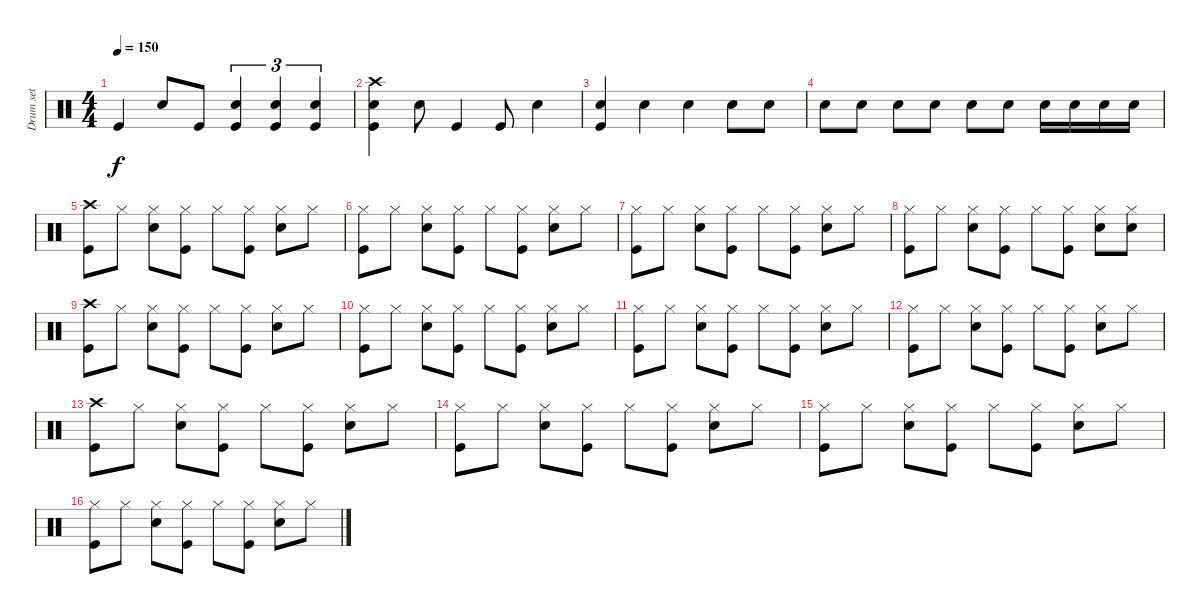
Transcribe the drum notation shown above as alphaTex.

\track ("Drum set" "Drum set") {instrument percussion}
\staff {score}
\articulation defaults
\ts (4 4)
\tempo 150
\clef neutral
\ks c "Kick (hit)".4{dy f} "Snare (hit) 2".8 "Kick (hit)".8
("Snare (hit) 2" "Kick (hit)").4{tu (3 2)} ("Snare (hit) 2" "Kick (hit)").4{tu (3 2)} ("Snare (hit) 2" "Kick (hit)").4{tu (3 2)} |
("Crash high (hit)" "Snare (hit) 2" "Kick (hit)").4 "Snare (hit) 2".8 "Kick (hit)".4 "Kick (hit)".8 "Snare (hit) 2".4 |
("Snare (hit) 2" "Kick (hit)").4 "Snare (hit) 2".4 "Snare (hit) 2".4 "Snare (hit) 2".8 "Snare (hit) 2".8 |
"Snare (hit) 2".8 "Snare (hit) 2".8 "Snare (hit) 2".8 "Snare (hit) 2".8 "Snare (hit) 2".8 "Snare (hit) 2".8 "Snare (hit) 2".16 "Snare (hit) 2".16 "Snare (hit) 2".16 "Snare (hit) 2".16 |
("Crash high (hit)" "Kick (hit)").8 "Hi-Hat (closed)".8 ("Hi-Hat (closed)" "Snare (hit) 2").8 ("Hi-Hat (closed)" "Kick (hit)").8 "Hi-Hat (closed)".8 ("Hi-Hat (closed)" "Kick (hit)").8 ("Hi-Hat (closed)" "Snare (hit) 2").8 "Hi-Hat (closed)".8 |
("Hi-Hat (closed)" "Kick (hit)").8 "Hi-Hat (closed)".8 ("Hi-Hat (closed)" "Snare (hit) 2").8 ("Hi-Hat (closed)" "Kick (hit)").8 "Hi-Hat (closed)".8 ("Hi-Hat (closed)" "Kick (hit)").8 ("Hi-Hat (closed)" "Snare (hit) 2").8 "Hi-Hat (closed)".8 |
("Hi-Hat (closed)" "Kick (hit)").8 "Hi-Hat (closed)".8 ("Hi-Hat (closed)" "Snare (hit) 2").8 ("Hi-Hat (closed)" "Kick (hit)").8 "Hi-Hat (closed)".8 ("Hi-Hat (closed)" "Kick (hit)").8 ("Hi-Hat (closed)" "Snare (hit) 2").8 "Hi-Hat (closed)".8 |
("Hi-Hat (closed)" "Kick (hit)").8 "Hi-Hat (closed)".8 ("Hi-Hat (closed)" "Snare (hit) 2").8 ("Hi-Hat (closed)" "Kick (hit)").8 "Hi-Hat (closed)".8 ("Hi-Hat (closed)" "Kick (hit)").8 ("Hi-Hat (closed)" "Snare (hit) 2").8 ("Hi-Hat (closed)" "Snare (hit) 2").8 |
("Crash high (hit)" "Kick (hit)").8 "Hi-Hat (closed)".8 ("Hi-Hat (closed)" "Snare (hit) 2").8 ("Hi-Hat (closed)" "Kick (hit)").8 "Hi-Hat (closed)".8 ("Hi-Hat (closed)" "Kick (hit)").8 ("Hi-Hat (closed)" "Snare (hit) 2").8 "Hi-Hat (closed)".8 |
("Hi-Hat (closed)" "Kick (hit)").8 "Hi-Hat (closed)".8 ("Hi-Hat (closed)" "Snare (hit) 2").8 ("Hi-Hat (closed)" "Kick (hit)").8 "Hi-Hat (closed)".8 ("Hi-Hat (closed)" "Kick (hit)").8 ("Hi-Hat (closed)" "Snare (hit) 2").8 "Hi-Hat (closed)".8 |
("Hi-Hat (closed)" "Kick (hit)").8 "Hi-Hat (closed)".8 ("Hi-Hat (closed)" "Snare (hit) 2").8 ("Hi-Hat (closed)" "Kick (hit)").8 "Hi-Hat (closed)".8 ("Hi-Hat (closed)" "Kick (hit)").8 ("Hi-Hat (closed)" "Snare (hit) 2").8 "Hi-Hat (closed)".8 |
("Hi-Hat (closed)" "Kick (hit)").8 "Hi-Hat (closed)".8 ("Hi-Hat (closed)" "Snare (hit) 2").8 ("Hi-Hat (closed)" "Kick (hit)").8 "Hi-Hat (closed)".8 ("Hi-Hat (closed)" "Kick (hit)").8 ("Hi-Hat (closed)" "Snare (hit) 2").8 "Hi-Hat (closed)".8 |
("Crash high (hit)" "Kick (hit)").8 "Hi-Hat (closed)".8 ("Hi-Hat (closed)" "Snare (hit) 2").8 ("Hi-Hat (closed)" "Kick (hit)").8 "Hi-Hat (closed)".8 ("Hi-Hat (closed)" "Kick (hit)").8 ("Hi-Hat (closed)" "Snare (hit) 2").8 "Hi-Hat (closed)".8 |
("Hi-Hat (closed)" "Kick (hit)").8 "Hi-Hat (closed)".8 ("Hi-Hat (closed)" "Snare (hit) 2").8 ("Hi-Hat (closed)" "Kick (hit)").8 "Hi-Hat (closed)".8 ("Hi-Hat (closed)" "Kick (hit)").8 ("Hi-Hat (closed)" "Snare (hit) 2").8 "Hi-Hat (closed)".8 |
("Hi-Hat (closed)" "Kick (hit)").8 "Hi-Hat (closed)".8 ("Hi-Hat (closed)" "Snare (hit) 2").8 ("Hi-Hat (closed)" "Kick (hit)").8 "Hi-Hat (closed)".8 ("Hi-Hat (closed)" "Kick (hit)").8 ("Hi-Hat (closed)" "Snare (hit) 2").8 "Hi-Hat (closed)".8 |
("Hi-Hat (closed)" "Kick (hit)").8 "Hi-Hat (closed)".8 ("Hi-Hat (closed)" "Snare (hit) 2").8 ("Hi-Hat (closed)" "Kick (hit)").8 "Hi-Hat (closed)".8 ("Hi-Hat (closed)" "Kick (hit)").8 ("Hi-Hat (closed)" "Snare (hit) 2").8 "Hi-Hat (closed)".8
